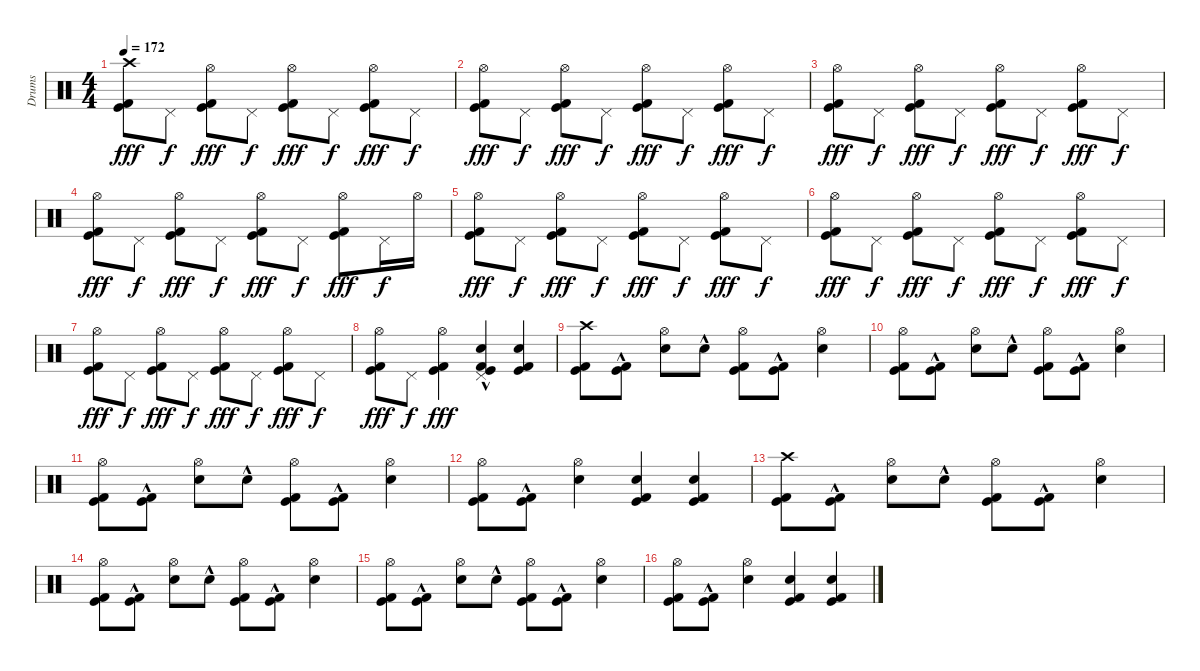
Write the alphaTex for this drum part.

\track ("Drums" "Drums") {instrument percussion}
\staff {score}
\articulation defaults
\ts (4 4)
\tempo 172
\clef neutral
\ks c
("Kick (hit)" "Kick (hit) 2" "Crash high (hit)").8{dy fff} "Pedal Hi-Hat (hit)".8{dy f} ("Kick (hit)" "Kick (hit) 2" "Hi-Hat (open)").8{dy fff} "Pedal Hi-Hat (hit)".8{dy f} ("Kick (hit)" "Kick (hit) 2" "Hi-Hat (open)").8{dy fff} "Pedal Hi-Hat (hit)".8{dy f} ("Kick (hit)" "Kick (hit) 2" "Hi-Hat (open)").8{dy fff} "Pedal Hi-Hat (hit)".8{dy f} |
("Kick (hit)" "Kick (hit) 2" "Hi-Hat (open)").8{dy fff} "Pedal Hi-Hat (hit)".8{dy f} ("Kick (hit)" "Kick (hit) 2" "Hi-Hat (open)").8{dy fff} "Pedal Hi-Hat (hit)".8{dy f} ("Kick (hit)" "Kick (hit) 2" "Hi-Hat (open)").8{dy fff} "Pedal Hi-Hat (hit)".8{dy f} ("Kick (hit)" "Kick (hit) 2" "Hi-Hat (open)").8{dy fff} "Pedal Hi-Hat (hit)".8{dy f} |
("Kick (hit)" "Kick (hit) 2" "Hi-Hat (open)").8{dy fff} "Pedal Hi-Hat (hit)".8{dy f} ("Kick (hit)" "Kick (hit) 2" "Hi-Hat (open)").8{dy fff} "Pedal Hi-Hat (hit)".8{dy f} ("Kick (hit)" "Kick (hit) 2" "Hi-Hat (open)").8{dy fff} "Pedal Hi-Hat (hit)".8{dy f} ("Kick (hit)" "Kick (hit) 2" "Hi-Hat (open)").8{dy fff} "Pedal Hi-Hat (hit)".8{dy f} |
("Kick (hit)" "Kick (hit) 2" "Hi-Hat (open)").8{dy fff} "Pedal Hi-Hat (hit)".8{dy f} ("Kick (hit)" "Kick (hit) 2" "Hi-Hat (open)").8{dy fff} "Pedal Hi-Hat (hit)".8{dy f} ("Kick (hit)" "Kick (hit) 2" "Hi-Hat (open)").8{dy fff} "Pedal Hi-Hat (hit)".8{dy f} ("Kick (hit)" "Kick (hit) 2" "Hi-Hat (open)").8{dy fff} "Pedal Hi-Hat (hit)".16{dy f} "Hi-Hat (open)".16 |
("Kick (hit)" "Kick (hit) 2" "Hi-Hat (open)").8{dy fff} "Pedal Hi-Hat (hit)".8{dy f} ("Kick (hit)" "Kick (hit) 2" "Hi-Hat (open)").8{dy fff} "Pedal Hi-Hat (hit)".8{dy f} ("Kick (hit)" "Kick (hit) 2" "Hi-Hat (open)").8{dy fff} "Pedal Hi-Hat (hit)".8{dy f} ("Kick (hit)" "Kick (hit) 2" "Hi-Hat (open)").8{dy fff} "Pedal Hi-Hat (hit)".8{dy f} |
("Kick (hit)" "Kick (hit) 2" "Hi-Hat (open)").8{dy fff} "Pedal Hi-Hat (hit)".8{dy f} ("Kick (hit)" "Kick (hit) 2" "Hi-Hat (open)").8{dy fff} "Pedal Hi-Hat (hit)".8{dy f} ("Kick (hit)" "Kick (hit) 2" "Hi-Hat (open)").8{dy fff} "Pedal Hi-Hat (hit)".8{dy f} ("Kick (hit)" "Kick (hit) 2" "Hi-Hat (open)").8{dy fff} "Pedal Hi-Hat (hit)".8{dy f} |
("Kick (hit)" "Kick (hit) 2" "Hi-Hat (open)").8{dy fff} "Pedal Hi-Hat (hit)".8{dy f} ("Kick (hit)" "Kick (hit) 2" "Hi-Hat (open)").8{dy fff} "Pedal Hi-Hat (hit)".8{dy f} ("Kick (hit)" "Kick (hit) 2" "Hi-Hat (open)").8{dy fff} "Pedal Hi-Hat (hit)".8{dy f} ("Kick (hit)" "Kick (hit) 2" "Hi-Hat (open)").8{dy fff} "Pedal Hi-Hat (hit)".8{dy f} |
("Kick (hit)" "Kick (hit) 2" "Hi-Hat (open)").8{dy fff} "Pedal Hi-Hat (hit)".8{dy f} ("Kick (hit)" "Kick (hit) 2" "Hi-Hat (open)").4{dy fff} ("Kick (hit)" "Kick (hit) 2" "Electric Snare (hit)" "Pedal Hi-Hat (hit)"{hac}).4 ("Kick (hit)" "Kick (hit) 2" "Electric Snare (hit)").4 |
("Kick (hit)" "Kick (hit) 2" "Crash high (hit)").8 ("Kick (hit)"{hac} "Kick (hit) 2"{hac}).8 ("Electric Snare (hit)" "Hi-Hat (open)").8 "Electric Snare (hit)"{hac}.8 ("Kick (hit)" "Kick (hit) 2" "Hi-Hat (open)").8 ("Kick (hit)"{hac} "Kick (hit) 2"{hac}).8 ("Electric Snare (hit)" "Hi-Hat (open)").4 |
("Kick (hit)" "Kick (hit) 2" "Hi-Hat (open)").8 ("Kick (hit)"{hac} "Kick (hit) 2"{hac}).8 ("Electric Snare (hit)" "Hi-Hat (open)").8 "Electric Snare (hit)"{hac}.8 ("Kick (hit)" "Kick (hit) 2" "Hi-Hat (open)").8 ("Kick (hit)"{hac} "Kick (hit) 2"{hac}).8 ("Electric Snare (hit)" "Hi-Hat (open)").4 |
("Kick (hit)" "Kick (hit) 2" "Hi-Hat (open)").8 ("Kick (hit)"{hac} "Kick (hit) 2"{hac}).8 ("Electric Snare (hit)" "Hi-Hat (open)").8 "Electric Snare (hit)"{hac}.8 ("Kick (hit)" "Kick (hit) 2" "Hi-Hat (open)").8 ("Kick (hit)"{hac} "Kick (hit) 2"{hac}).8 ("Electric Snare (hit)" "Hi-Hat (open)").4 |
("Kick (hit)" "Kick (hit) 2" "Hi-Hat (open)").8 ("Kick (hit)"{hac} "Kick (hit) 2"{hac}).8 ("Electric Snare (hit)" "Hi-Hat (open)").4 ("Kick (hit)" "Kick (hit) 2" "Electric Snare (hit)").4 ("Kick (hit)" "Kick (hit) 2" "Electric Snare (hit)").4 |
("Kick (hit)" "Kick (hit) 2" "Crash high (hit)").8 ("Kick (hit)"{hac} "Kick (hit) 2"{hac}).8 ("Electric Snare (hit)" "Hi-Hat (open)").8 "Electric Snare (hit)"{hac}.8 ("Kick (hit)" "Kick (hit) 2" "Hi-Hat (open)").8 ("Kick (hit)"{hac} "Kick (hit) 2"{hac}).8 ("Electric Snare (hit)" "Hi-Hat (open)").4 |
("Kick (hit)" "Kick (hit) 2" "Hi-Hat (open)").8 ("Kick (hit)"{hac} "Kick (hit) 2"{hac}).8 ("Electric Snare (hit)" "Hi-Hat (open)").8 "Electric Snare (hit)"{hac}.8 ("Kick (hit)" "Kick (hit) 2" "Hi-Hat (open)").8 ("Kick (hit)"{hac} "Kick (hit) 2"{hac}).8 ("Electric Snare (hit)" "Hi-Hat (open)").4 |
("Kick (hit)" "Kick (hit) 2" "Hi-Hat (open)").8 ("Kick (hit)"{hac} "Kick (hit) 2"{hac}).8 ("Electric Snare (hit)" "Hi-Hat (open)").8 "Electric Snare (hit)"{hac}.8 ("Kick (hit)" "Kick (hit) 2" "Hi-Hat (open)").8 ("Kick (hit)"{hac} "Kick (hit) 2"{hac}).8 ("Electric Snare (hit)" "Hi-Hat (open)").4 |
("Kick (hit)" "Kick (hit) 2" "Hi-Hat (open)").8 ("Kick (hit)"{hac} "Kick (hit) 2"{hac}).8 ("Electric Snare (hit)" "Hi-Hat (open)").4 ("Kick (hit)" "Kick (hit) 2" "Electric Snare (hit)").4 ("Kick (hit)" "Kick (hit) 2" "Electric Snare (hit)").4
